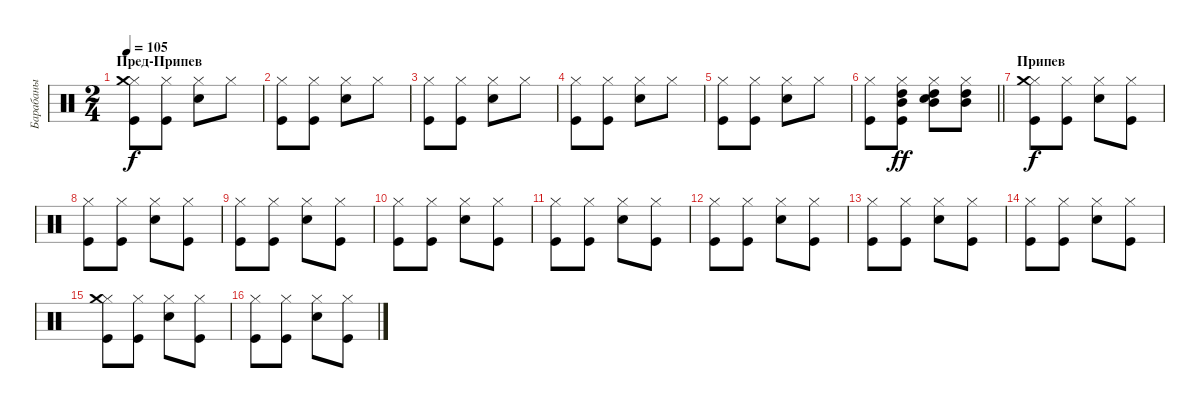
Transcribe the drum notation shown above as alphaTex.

\track ("Барабаны" "Барабаны") {instrument percussion}
\staff {score}
\articulation defaults
\ts (2 4)
\section ("" "Пред-Припев")
\tempo 105
\clef neutral
\ks c
("Kick (hit)" "Hi-Hat (closed)" "Crash medium (hit)").8{dy f} ("Kick (hit)" "Hi-Hat (closed)").8 ("Snare (hit) 2" "Hi-Hat (closed)").8 "Hi-Hat (closed)".8 |
("Kick (hit)" "Hi-Hat (closed)").8 ("Kick (hit)" "Hi-Hat (closed)").8 ("Snare (hit) 2" "Hi-Hat (closed)").8 "Hi-Hat (closed)".8 |
("Kick (hit)" "Hi-Hat (closed)").8 ("Kick (hit)" "Hi-Hat (closed)").8 ("Snare (hit) 2" "Hi-Hat (closed)").8 "Hi-Hat (closed)".8 |
("Kick (hit)" "Hi-Hat (closed)").8 ("Kick (hit)" "Hi-Hat (closed)").8 ("Snare (hit) 2" "Hi-Hat (closed)").8 "Hi-Hat (closed)".8 |
("Kick (hit)" "Hi-Hat (closed)").8 ("Kick (hit)" "Hi-Hat (closed)").8 ("Snare (hit) 2" "Hi-Hat (closed)").8 "Hi-Hat (closed)".8 |
\barLineRight lightlight
("Kick (hit)" "Hi-Hat (closed)").8 ("Kick (hit)" "Hi-Hat (closed)" "Mid Tom (hit)" "High Tom (hit)").8{dy ff} ("Snare (hit) 2" "Hi-Hat (closed)" "Mid Tom (hit)" "High Tom (hit)").8 ("Hi-Hat (closed)" "Mid Tom (hit)" "High Tom (hit)").8 |
\section ("" "Припев")
("Kick (hit)" "Hi-Hat (closed)" "Crash medium (hit)").8{dy f} ("Kick (hit)" "Hi-Hat (closed)").8 ("Snare (hit) 2" "Hi-Hat (closed)").8 ("Kick (hit)" "Hi-Hat (closed)").8 |
("Kick (hit)" "Hi-Hat (closed)").8 ("Kick (hit)" "Hi-Hat (closed)").8 ("Snare (hit) 2" "Hi-Hat (closed)").8 ("Kick (hit)" "Hi-Hat (closed)").8 |
("Kick (hit)" "Hi-Hat (closed)").8 ("Kick (hit)" "Hi-Hat (closed)").8 ("Snare (hit) 2" "Hi-Hat (closed)").8 ("Kick (hit)" "Hi-Hat (closed)").8 |
("Kick (hit)" "Hi-Hat (closed)").8 ("Kick (hit)" "Hi-Hat (closed)").8 ("Snare (hit) 2" "Hi-Hat (closed)").8 ("Kick (hit)" "Hi-Hat (closed)").8 |
("Kick (hit)" "Hi-Hat (closed)").8 ("Kick (hit)" "Hi-Hat (closed)").8 ("Snare (hit) 2" "Hi-Hat (closed)").8 ("Kick (hit)" "Hi-Hat (closed)").8 |
("Kick (hit)" "Hi-Hat (closed)").8 ("Kick (hit)" "Hi-Hat (closed)").8 ("Snare (hit) 2" "Hi-Hat (closed)").8 ("Kick (hit)" "Hi-Hat (closed)").8 |
("Kick (hit)" "Hi-Hat (closed)").8 ("Kick (hit)" "Hi-Hat (closed)").8 ("Snare (hit) 2" "Hi-Hat (closed)").8 ("Kick (hit)" "Hi-Hat (closed)").8 |
("Kick (hit)" "Hi-Hat (closed)").8 ("Kick (hit)" "Hi-Hat (closed)").8 ("Snare (hit) 2" "Hi-Hat (closed)").8 ("Kick (hit)" "Hi-Hat (closed)").8 |
("Kick (hit)" "Hi-Hat (closed)" "Crash medium (hit)").8 ("Kick (hit)" "Hi-Hat (closed)").8 ("Snare (hit) 2" "Hi-Hat (closed)").8 ("Kick (hit)" "Hi-Hat (closed)").8 |
("Kick (hit)" "Hi-Hat (closed)").8 ("Kick (hit)" "Hi-Hat (closed)").8 ("Snare (hit) 2" "Hi-Hat (closed)").8 ("Kick (hit)" "Hi-Hat (closed)").8
